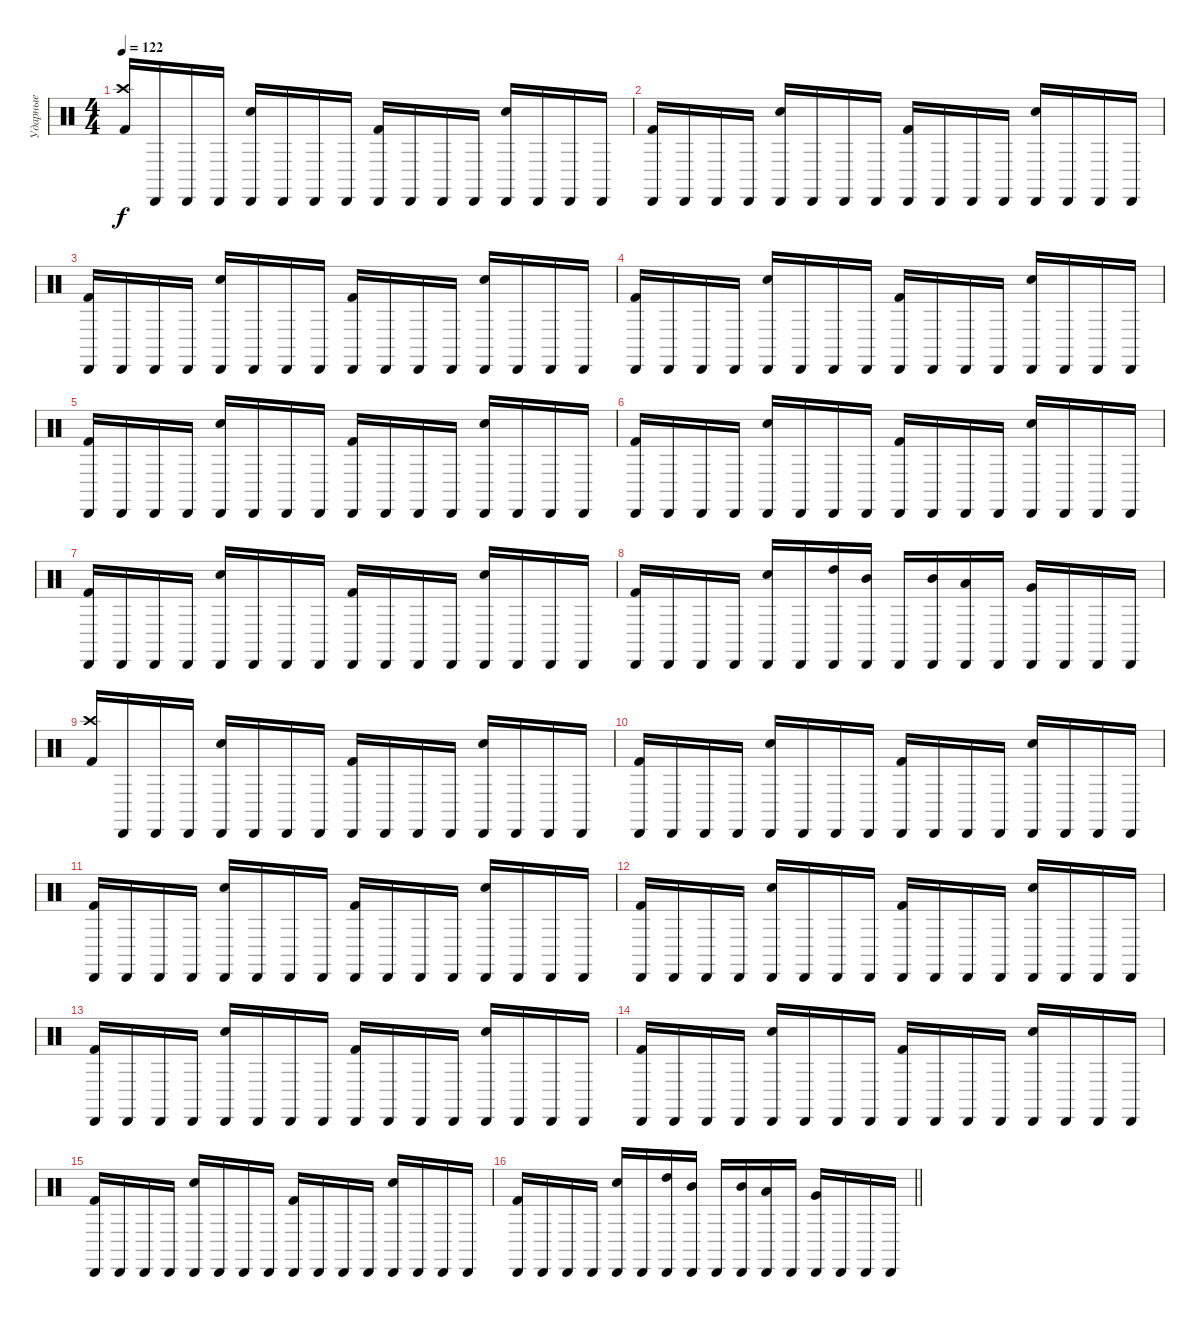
\track ("Ударные" "Ударные") {instrument percussion}
\staff {score}
\articulation defaults
\ts (4 4)
\tempo 122
\clef neutral
\ks c
("Crash high (hit)" "Kick (hit) 2").16{dy f} "Cabasa (hit)".16 "Cabasa (hit)".16 "Cabasa (hit)".16 ("Cabasa (hit)" "Snare (hit) 2").16 "Cabasa (hit)".16 "Cabasa (hit)".16 "Cabasa (hit)".16 ("Cabasa (hit)" "Kick (hit) 2").16 "Cabasa (hit)".16 "Cabasa (hit)".16 "Cabasa (hit)".16 ("Cabasa (hit)" "Snare (hit) 2").16 "Cabasa (hit)".16 "Cabasa (hit)".16 "Cabasa (hit)".16 |
("Cabasa (hit)" "Kick (hit) 2").16 "Cabasa (hit)".16 "Cabasa (hit)".16 "Cabasa (hit)".16 ("Cabasa (hit)" "Snare (hit) 2").16 "Cabasa (hit)".16 "Cabasa (hit)".16 "Cabasa (hit)".16 ("Cabasa (hit)" "Kick (hit) 2").16 "Cabasa (hit)".16 "Cabasa (hit)".16 "Cabasa (hit)".16 ("Cabasa (hit)" "Snare (hit) 2").16 "Cabasa (hit)".16 "Cabasa (hit)".16 "Cabasa (hit)".16 |
("Cabasa (hit)" "Kick (hit) 2").16 "Cabasa (hit)".16 "Cabasa (hit)".16 "Cabasa (hit)".16 ("Cabasa (hit)" "Snare (hit) 2").16 "Cabasa (hit)".16 "Cabasa (hit)".16 "Cabasa (hit)".16 ("Cabasa (hit)" "Kick (hit) 2").16 "Cabasa (hit)".16 "Cabasa (hit)".16 "Cabasa (hit)".16 ("Cabasa (hit)" "Snare (hit) 2").16 "Cabasa (hit)".16 "Cabasa (hit)".16 "Cabasa (hit)".16 |
("Cabasa (hit)" "Kick (hit) 2").16 "Cabasa (hit)".16 "Cabasa (hit)".16 "Cabasa (hit)".16 ("Cabasa (hit)" "Snare (hit) 2").16 "Cabasa (hit)".16 "Cabasa (hit)".16 "Cabasa (hit)".16 ("Cabasa (hit)" "Kick (hit) 2").16 "Cabasa (hit)".16 "Cabasa (hit)".16 "Cabasa (hit)".16 ("Cabasa (hit)" "Snare (hit) 2").16 "Cabasa (hit)".16 "Cabasa (hit)".16 "Cabasa (hit)".16 |
("Cabasa (hit)" "Kick (hit) 2").16 "Cabasa (hit)".16 "Cabasa (hit)".16 "Cabasa (hit)".16 ("Cabasa (hit)" "Snare (hit) 2").16 "Cabasa (hit)".16 "Cabasa (hit)".16 "Cabasa (hit)".16 ("Cabasa (hit)" "Kick (hit) 2").16 "Cabasa (hit)".16 "Cabasa (hit)".16 "Cabasa (hit)".16 ("Cabasa (hit)" "Snare (hit) 2").16 "Cabasa (hit)".16 "Cabasa (hit)".16 "Cabasa (hit)".16 |
("Cabasa (hit)" "Kick (hit) 2").16 "Cabasa (hit)".16 "Cabasa (hit)".16 "Cabasa (hit)".16 ("Cabasa (hit)" "Snare (hit) 2").16 "Cabasa (hit)".16 "Cabasa (hit)".16 "Cabasa (hit)".16 ("Cabasa (hit)" "Kick (hit) 2").16 "Cabasa (hit)".16 "Cabasa (hit)".16 "Cabasa (hit)".16 ("Cabasa (hit)" "Snare (hit) 2").16 "Cabasa (hit)".16 "Cabasa (hit)".16 "Cabasa (hit)".16 |
("Cabasa (hit)" "Kick (hit) 2").16 "Cabasa (hit)".16 "Cabasa (hit)".16 "Cabasa (hit)".16 ("Cabasa (hit)" "Snare (hit) 2").16 "Cabasa (hit)".16 "Cabasa (hit)".16 "Cabasa (hit)".16 ("Cabasa (hit)" "Kick (hit) 2").16 "Cabasa (hit)".16 "Cabasa (hit)".16 "Cabasa (hit)".16 ("Cabasa (hit)" "Snare (hit) 2").16 "Cabasa (hit)".16 "Cabasa (hit)".16 "Cabasa (hit)".16 |
("Cabasa (hit)" "Kick (hit) 2").16 "Cabasa (hit)".16 "Cabasa (hit)".16 "Cabasa (hit)".16 ("Cabasa (hit)" "Snare (hit) 2").16 "Cabasa (hit)".16 ("Cabasa (hit)" "High Tom (hit)").16 ("Cabasa (hit)" "Mid Tom (hit)").16 "Cabasa (hit)".16 ("Cabasa (hit)" "Mid Tom (hit)").16 ("Cabasa (hit)" "Low Tom (hit)").16 "Cabasa (hit)".16 ("Cabasa (hit)" "Very Low Tom (hit)").16 "Cabasa (hit)".16 "Cabasa (hit)".16 "Cabasa (hit)".16 |
("Crash high (hit)" "Kick (hit) 2").16 "Cabasa (hit)".16 "Cabasa (hit)".16 "Cabasa (hit)".16 ("Cabasa (hit)" "Snare (hit) 2").16 "Cabasa (hit)".16 "Cabasa (hit)".16 "Cabasa (hit)".16 ("Cabasa (hit)" "Kick (hit) 2").16 "Cabasa (hit)".16 "Cabasa (hit)".16 "Cabasa (hit)".16 ("Cabasa (hit)" "Snare (hit) 2").16 "Cabasa (hit)".16 "Cabasa (hit)".16 "Cabasa (hit)".16 |
("Cabasa (hit)" "Kick (hit) 2").16 "Cabasa (hit)".16 "Cabasa (hit)".16 "Cabasa (hit)".16 ("Cabasa (hit)" "Snare (hit) 2").16 "Cabasa (hit)".16 "Cabasa (hit)".16 "Cabasa (hit)".16 ("Cabasa (hit)" "Kick (hit) 2").16 "Cabasa (hit)".16 "Cabasa (hit)".16 "Cabasa (hit)".16 ("Cabasa (hit)" "Snare (hit) 2").16 "Cabasa (hit)".16 "Cabasa (hit)".16 "Cabasa (hit)".16 |
("Cabasa (hit)" "Kick (hit) 2").16 "Cabasa (hit)".16 "Cabasa (hit)".16 "Cabasa (hit)".16 ("Cabasa (hit)" "Snare (hit) 2").16 "Cabasa (hit)".16 "Cabasa (hit)".16 "Cabasa (hit)".16 ("Cabasa (hit)" "Kick (hit) 2").16 "Cabasa (hit)".16 "Cabasa (hit)".16 "Cabasa (hit)".16 ("Cabasa (hit)" "Snare (hit) 2").16 "Cabasa (hit)".16 "Cabasa (hit)".16 "Cabasa (hit)".16 |
("Cabasa (hit)" "Kick (hit) 2").16 "Cabasa (hit)".16 "Cabasa (hit)".16 "Cabasa (hit)".16 ("Cabasa (hit)" "Snare (hit) 2").16 "Cabasa (hit)".16 "Cabasa (hit)".16 "Cabasa (hit)".16 ("Cabasa (hit)" "Kick (hit) 2").16 "Cabasa (hit)".16 "Cabasa (hit)".16 "Cabasa (hit)".16 ("Cabasa (hit)" "Snare (hit) 2").16 "Cabasa (hit)".16 "Cabasa (hit)".16 "Cabasa (hit)".16 |
("Cabasa (hit)" "Kick (hit) 2").16 "Cabasa (hit)".16 "Cabasa (hit)".16 "Cabasa (hit)".16 ("Cabasa (hit)" "Snare (hit) 2").16 "Cabasa (hit)".16 "Cabasa (hit)".16 "Cabasa (hit)".16 ("Cabasa (hit)" "Kick (hit) 2").16 "Cabasa (hit)".16 "Cabasa (hit)".16 "Cabasa (hit)".16 ("Cabasa (hit)" "Snare (hit) 2").16 "Cabasa (hit)".16 "Cabasa (hit)".16 "Cabasa (hit)".16 |
("Cabasa (hit)" "Kick (hit) 2").16 "Cabasa (hit)".16 "Cabasa (hit)".16 "Cabasa (hit)".16 ("Cabasa (hit)" "Snare (hit) 2").16 "Cabasa (hit)".16 "Cabasa (hit)".16 "Cabasa (hit)".16 ("Cabasa (hit)" "Kick (hit) 2").16 "Cabasa (hit)".16 "Cabasa (hit)".16 "Cabasa (hit)".16 ("Cabasa (hit)" "Snare (hit) 2").16 "Cabasa (hit)".16 "Cabasa (hit)".16 "Cabasa (hit)".16 |
("Cabasa (hit)" "Kick (hit) 2").16 "Cabasa (hit)".16 "Cabasa (hit)".16 "Cabasa (hit)".16 ("Cabasa (hit)" "Snare (hit) 2").16 "Cabasa (hit)".16 "Cabasa (hit)".16 "Cabasa (hit)".16 ("Cabasa (hit)" "Kick (hit) 2").16 "Cabasa (hit)".16 "Cabasa (hit)".16 "Cabasa (hit)".16 ("Cabasa (hit)" "Snare (hit) 2").16 "Cabasa (hit)".16 "Cabasa (hit)".16 "Cabasa (hit)".16 |
\barLineRight lightlight
("Cabasa (hit)" "Kick (hit) 2").16 "Cabasa (hit)".16 "Cabasa (hit)".16 "Cabasa (hit)".16 ("Cabasa (hit)" "Snare (hit) 2").16 "Cabasa (hit)".16 ("Cabasa (hit)" "High Tom (hit)").16 ("Cabasa (hit)" "Mid Tom (hit)").16 "Cabasa (hit)".16 ("Cabasa (hit)" "Mid Tom (hit)").16 ("Cabasa (hit)" "Low Tom (hit)").16 "Cabasa (hit)".16 ("Cabasa (hit)" "Very Low Tom (hit)").16 "Cabasa (hit)".16 "Cabasa (hit)".16 "Cabasa (hit)".16
